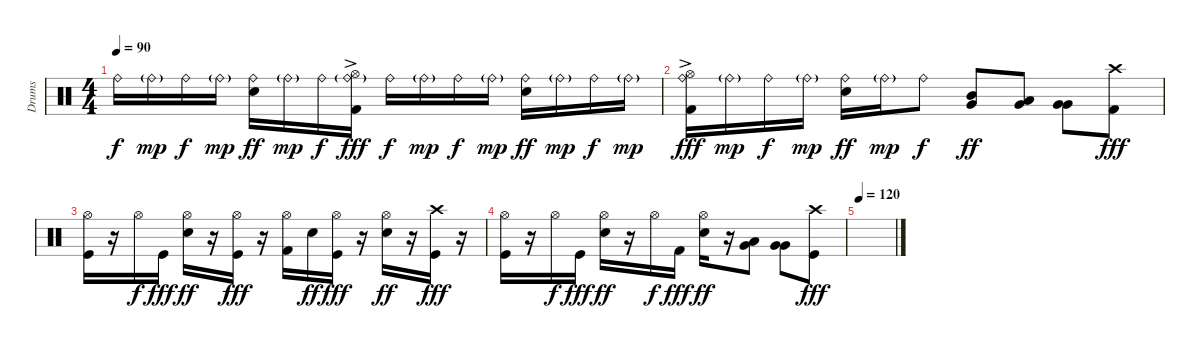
\track ("Drums" "Drums") {instrument percussion}
\staff {score}
\articulation defaults
\ts (4 4)
\tempo 90
\clef neutral
\ks c "Ride (bell)".16{dy f} "Ride (bell)"{g}.16{dy mp} "Ride (bell)".16{dy f} "Ride (bell)"{g}.16{dy mp}
("Ride (bell)" "Snare (hit) 2").16{dy ff} "Ride (bell)"{g}.16{dy mp} "Ride (bell)".16{dy f} ("Hi-Hat (open)"{ac} "Ride (bell)"{g} "Kick (hit) 2").16{dy fff} "Ride (bell)".16{dy f} "Ride (bell)"{g}.16{dy mp} "Ride (bell)".16{dy f} "Ride (bell)"{g}.16{dy mp} ("Ride (bell)" "Snare (hit) 2").16{dy ff} "Ride (bell)"{g}.16{dy mp} "Ride (bell)".16{dy f} "Ride (bell)"{g}.16{dy mp} |
("Hi-Hat (open)"{ac} "Ride (bell)" "Kick (hit) 2").16{dy fff} "Ride (bell)"{g}.16{dy mp} "Ride (bell)".16{dy f} "Ride (bell)"{g}.16{dy mp} ("Ride (bell)" "Snare (hit) 2").16{dy ff} "Ride (bell)"{g}.16{dy mp} "Ride (bell)".8{dy f} ("Mid Tom (hit)" "Very Low Tom (hit)").8{dy ff} ("Low Tom (hit)" "Very Low Tom (hit)").8 ("Very Low Tom (hit)" "Very Low Tom (hit)").8 ("Crash high (hit)" "Kick (hit) 2").8{dy fff} |
("Hi-Hat (open)" "Kick (hit)").16 r.16 "Hi-Hat (open)".16{dy f} "Kick (hit)".16{dy fff} ("Hi-Hat (open)" "Snare (hit) 2").16{dy ff} r.16 ("Hi-Hat (open)" "Kick (hit)").16{dy fff} r.16 ("Hi-Hat (open)" "Kick (hit) 2").16 "Snare (hit) 2".16{dy ff} ("Hi-Hat (open)" "Kick (hit)").16{dy fff} r.16 ("Hi-Hat (open)" "Snare (hit) 2").16{dy ff} r.16 ("Crash high (hit)" "Kick (hit)").16{dy fff} r.16 |
("Hi-Hat (open)" "Kick (hit)").16 r.16 "Hi-Hat (open)".16{dy f} "Kick (hit)".16{dy fff} ("Hi-Hat (open)" "Snare (hit) 2").16{dy ff} r.16 "Hi-Hat (open)".16{dy f} "Kick (hit) 2".16{dy fff} ("Hi-Hat (open)" "Snare (hit) 2").16{dy ff} r.16 ("Low Tom (hit)" "Very Low Tom (hit)").8 ("Very Low Tom (hit)" "Very Low Tom (hit)").8 ("Crash high (hit)" "Kick (hit)").8{dy fff} |
\tempo 120
